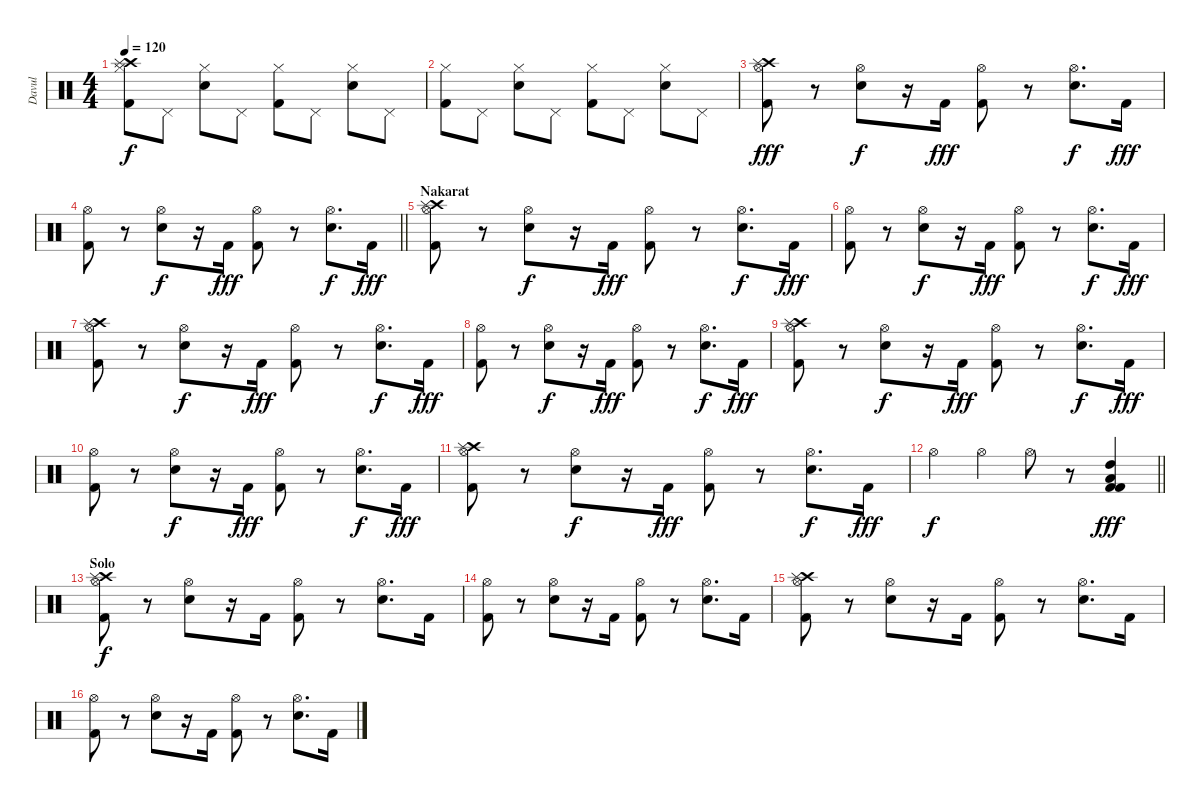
\track ("Davul" "Davul") {instrument percussion}
\staff {score}
\articulation defaults
\ts (4 4)
\tempo 120
\clef neutral
\ks c
("Hi-Hat (closed)" "Kick (hit) 2" "Crash high (hit)" "Splash (hit)").8{dy f} "Pedal Hi-Hat (hit)".8 ("Hi-Hat (closed)" "Snare (hit) 2").8 "Pedal Hi-Hat (hit)".8 ("Hi-Hat (closed)" "Kick (hit) 2").8 "Pedal Hi-Hat (hit)".8 ("Hi-Hat (closed)" "Snare (hit) 2").8 "Pedal Hi-Hat (hit)".8 |
("Hi-Hat (closed)" "Kick (hit) 2").8 "Pedal Hi-Hat (hit)".8 ("Hi-Hat (closed)" "Snare (hit) 2").8 "Pedal Hi-Hat (hit)".8 ("Hi-Hat (closed)" "Kick (hit) 2").8 "Pedal Hi-Hat (hit)".8 ("Hi-Hat (closed)" "Snare (hit) 2").8 "Pedal Hi-Hat (hit)".8 |
("Hi-Hat (open)" "Kick (hit) 2" "Crash high (hit)" "Splash (hit)").8{dy fff} r.8 ("Hi-Hat (open)" "Snare (hit) 2").8{dy f} r.16 "Kick (hit) 2".16{dy fff} ("Hi-Hat (open)" "Kick (hit) 2").8 r.8 ("Hi-Hat (open)" "Snare (hit) 2").8{d dy f} "Kick (hit) 2".16{dy fff} |
\barLineRight lightlight
("Hi-Hat (open)" "Kick (hit) 2").8 r.8 ("Hi-Hat (open)" "Snare (hit) 2").8{dy f} r.16 "Kick (hit) 2".16{dy fff} ("Hi-Hat (open)" "Kick (hit) 2").8 r.8 ("Hi-Hat (open)" "Snare (hit) 2").8{d dy f} "Kick (hit) 2".16{dy fff} |
\section ("" "Nakarat")
("Hi-Hat (open)" "Kick (hit) 2" "Crash high (hit)" "Splash (hit)").8 r.8 ("Hi-Hat (open)" "Snare (hit) 2").8{dy f} r.16 "Kick (hit) 2".16{dy fff} ("Hi-Hat (open)" "Kick (hit) 2").8 r.8 ("Hi-Hat (open)" "Snare (hit) 2").8{d dy f} "Kick (hit) 2".16{dy fff} |
("Hi-Hat (open)" "Kick (hit) 2").8 r.8 ("Hi-Hat (open)" "Snare (hit) 2").8{dy f} r.16 "Kick (hit) 2".16{dy fff} ("Hi-Hat (open)" "Kick (hit) 2").8 r.8 ("Hi-Hat (open)" "Snare (hit) 2").8{d dy f} "Kick (hit) 2".16{dy fff} |
("Hi-Hat (open)" "Kick (hit) 2" "Crash high (hit)" "Splash (hit)").8 r.8 ("Hi-Hat (open)" "Snare (hit) 2").8{dy f} r.16 "Kick (hit) 2".16{dy fff} ("Hi-Hat (open)" "Kick (hit) 2").8 r.8 ("Hi-Hat (open)" "Snare (hit) 2").8{d dy f} "Kick (hit) 2".16{dy fff} |
("Hi-Hat (open)" "Kick (hit) 2").8 r.8 ("Hi-Hat (open)" "Snare (hit) 2").8{dy f} r.16 "Kick (hit) 2".16{dy fff} ("Hi-Hat (open)" "Kick (hit) 2").8 r.8 ("Hi-Hat (open)" "Snare (hit) 2").8{d dy f} "Kick (hit) 2".16{dy fff} |
("Hi-Hat (open)" "Kick (hit) 2" "Crash high (hit)" "Splash (hit)").8 r.8 ("Hi-Hat (open)" "Snare (hit) 2").8{dy f} r.16 "Kick (hit) 2".16{dy fff} ("Hi-Hat (open)" "Kick (hit) 2").8 r.8 ("Hi-Hat (open)" "Snare (hit) 2").8{d dy f} "Kick (hit) 2".16{dy fff} |
("Hi-Hat (open)" "Kick (hit) 2").8 r.8 ("Hi-Hat (open)" "Snare (hit) 2").8{dy f} r.16 "Kick (hit) 2".16{dy fff} ("Hi-Hat (open)" "Kick (hit) 2").8 r.8 ("Hi-Hat (open)" "Snare (hit) 2").8{d dy f} "Kick (hit) 2".16{dy fff} |
("Hi-Hat (open)" "Kick (hit) 2" "Crash high (hit)" "Splash (hit)").8 r.8 ("Hi-Hat (open)" "Snare (hit) 2").8{dy f} r.16 "Kick (hit) 2".16{dy fff} ("Hi-Hat (open)" "Kick (hit) 2").8 r.8 ("Hi-Hat (open)" "Snare (hit) 2").8{d dy f} "Kick (hit) 2".16{dy fff} |
\barLineRight lightlight "Hi-Hat (open)".4{dy f} "Hi-Hat (open)".4 "Hi-Hat (open)".8
r.8 ("Kick (hit) 2" "Kick (hit) 2" "Low Tom (hit)" "High Tom (hit)").4{dy fff} |
\section ("" "Solo")
("Hi-Hat (open)" "Kick (hit) 2" "Crash high (hit)" "Splash (hit)").8{dy f} r.8 ("Hi-Hat (open)" "Snare (hit) 2").8 r.16 "Kick (hit) 2".16 ("Hi-Hat (open)" "Kick (hit) 2").8 r.8 ("Hi-Hat (open)" "Snare (hit) 2").8{d} "Kick (hit) 2".16 |
("Hi-Hat (open)" "Kick (hit) 2").8 r.8 ("Hi-Hat (open)" "Snare (hit) 2").8 r.16 "Kick (hit) 2".16 ("Hi-Hat (open)" "Kick (hit) 2").8 r.8 ("Hi-Hat (open)" "Snare (hit) 2").8{d} "Kick (hit) 2".16 |
("Hi-Hat (open)" "Kick (hit) 2" "Crash high (hit)" "Splash (hit)").8 r.8 ("Hi-Hat (open)" "Snare (hit) 2").8 r.16 "Kick (hit) 2".16 ("Hi-Hat (open)" "Kick (hit) 2").8 r.8 ("Hi-Hat (open)" "Snare (hit) 2").8{d} "Kick (hit) 2".16 |
("Hi-Hat (open)" "Kick (hit) 2").8 r.8 ("Hi-Hat (open)" "Snare (hit) 2").8 r.16 "Kick (hit) 2".16 ("Hi-Hat (open)" "Kick (hit) 2").8 r.8 ("Hi-Hat (open)" "Snare (hit) 2").8{d} "Kick (hit) 2".16
